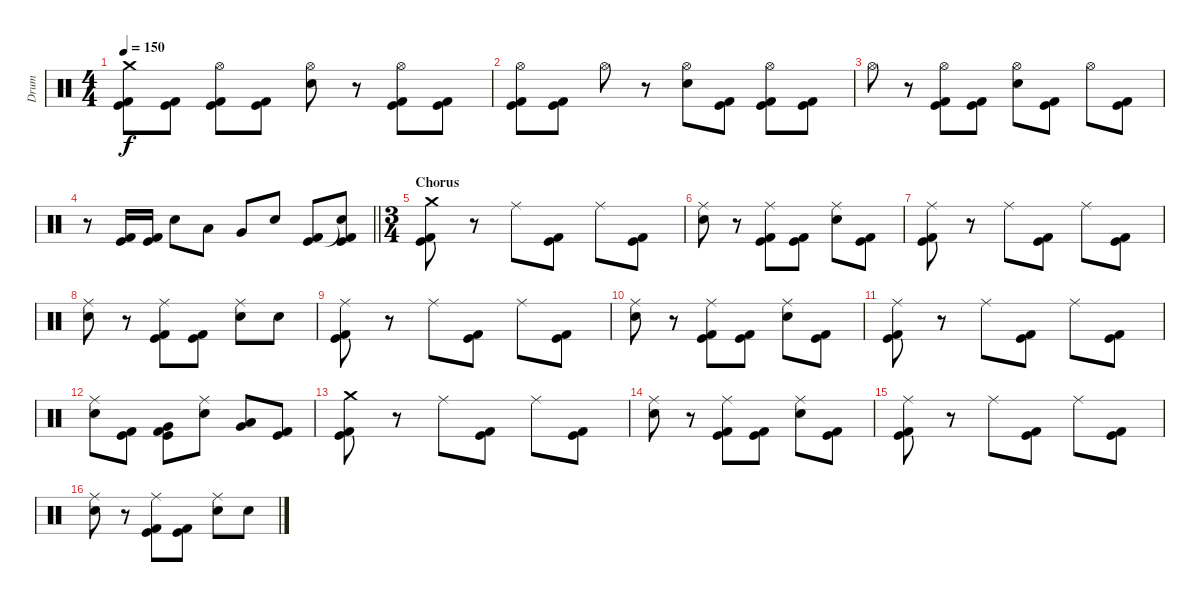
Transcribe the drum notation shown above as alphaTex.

\track ("Drum" "Drum") {instrument percussion}
\staff {score}
\articulation defaults
\ts (4 4)
\tempo 150
\clef neutral
\ks c
("Crash medium (hit)" "Kick (hit)" "Kick (hit) 2").8{dy f} ("Kick (hit)" "Kick (hit) 2").8 ("Hi-Hat (open)" "Kick (hit)" "Kick (hit) 2").8 ("Kick (hit)" "Kick (hit) 2").8 ("Hi-Hat (open)" "Electric Snare (hit)").8 r.8 ("Hi-Hat (open)" "Kick (hit)" "Kick (hit) 2").8 ("Kick (hit)" "Kick (hit) 2").8 |
("Hi-Hat (open)" "Kick (hit)" "Kick (hit) 2").8 ("Kick (hit)" "Kick (hit) 2").8 "Hi-Hat (open)".8 r.8 ("Hi-Hat (open)" "Electric Snare (hit)").8 ("Kick (hit)" "Kick (hit) 2").8 ("Hi-Hat (open)" "Kick (hit)" "Kick (hit) 2").8 ("Kick (hit)" "Kick (hit) 2").8 |
"Hi-Hat (open)".8 r.8 ("Hi-Hat (open)" "Kick (hit)" "Kick (hit) 2").8 ("Kick (hit)" "Kick (hit) 2").8 ("Hi-Hat (open)" "Electric Snare (hit)").8 ("Kick (hit)" "Kick (hit) 2").8 "Hi-Hat (open)".8 ("Kick (hit)" "Kick (hit) 2").8 |
\barLineRight lightlight
r.8 ("Kick (hit)" "Kick (hit) 2").16 ("Kick (hit)" "Kick (hit) 2").16 "Electric Snare (hit)".8 "Low Tom (hit)".8 "Very Low Tom (hit)".8 "Electric Snare (hit)".8 ("Kick (hit)" "Kick (hit) 2").8 ("Snare (hit)"{t} "Kick (hit)" "Kick (hit) 2").8 |
\ts (3 4)
\section ("" "Chorus")
("Crash medium (hit)" "Kick (hit)" "Kick (hit) 2").8 r.8 "Ride (middle)".8 ("Kick (hit)" "Kick (hit) 2").8 "Ride (middle)".8 ("Kick (hit)" "Kick (hit) 2").8 |
("Ride (middle)" "Electric Snare (hit)").8 r.8 ("Ride (middle)" "Kick (hit)" "Kick (hit) 2").8 ("Kick (hit)" "Kick (hit) 2").8 ("Ride (middle)" "Electric Snare (hit)").8 ("Kick (hit)" "Kick (hit) 2").8 |
("Ride (middle)" "Kick (hit)" "Kick (hit) 2").8 r.8 "Ride (middle)".8 ("Kick (hit)" "Kick (hit) 2").8 "Ride (middle)".8 ("Kick (hit)" "Kick (hit) 2").8 |
("Ride (middle)" "Electric Snare (hit)").8 r.8 ("Ride (middle)" "Kick (hit)" "Kick (hit) 2").8 ("Kick (hit)" "Kick (hit) 2").8 ("Ride (middle)" "Electric Snare (hit)").8 "Electric Snare (hit)".8 |
("Ride (middle)" "Kick (hit)" "Kick (hit) 2").8 r.8 "Ride (middle)".8 ("Kick (hit)" "Kick (hit) 2").8 "Ride (middle)".8 ("Kick (hit)" "Kick (hit) 2").8 |
("Ride (middle)" "Electric Snare (hit)").8 r.8 ("Ride (middle)" "Kick (hit)" "Kick (hit) 2").8 ("Kick (hit)" "Kick (hit) 2").8 ("Ride (middle)" "Electric Snare (hit)").8 ("Kick (hit)" "Kick (hit) 2").8 |
("Ride (middle)" "Kick (hit)" "Kick (hit) 2").8 r.8 "Ride (middle)".8 ("Kick (hit)" "Kick (hit) 2").8 "Ride (middle)".8 ("Kick (hit)" "Kick (hit) 2").8 |
("Ride (middle)" "Electric Snare (hit)").8 ("Kick (hit)" "Kick (hit) 2").8 ("Very Low Tom (hit)" "Kick (hit)" "Kick (hit) 2").8 ("Ride (middle)" "Electric Snare (hit)").8 ("Very Low Tom (hit)" "Low Tom (hit)").8 ("Kick (hit)" "Kick (hit) 2").8 |
("Crash medium (hit)" "Kick (hit)" "Kick (hit) 2").8 r.8 "Ride (middle)".8 ("Kick (hit)" "Kick (hit) 2").8 "Ride (middle)".8 ("Kick (hit)" "Kick (hit) 2").8 |
("Ride (middle)" "Electric Snare (hit)").8 r.8 ("Ride (middle)" "Kick (hit)" "Kick (hit) 2").8 ("Kick (hit)" "Kick (hit) 2").8 ("Ride (middle)" "Electric Snare (hit)").8 ("Kick (hit)" "Kick (hit) 2").8 |
("Ride (middle)" "Kick (hit)" "Kick (hit) 2").8 r.8 "Ride (middle)".8 ("Kick (hit)" "Kick (hit) 2").8 "Ride (middle)".8 ("Kick (hit)" "Kick (hit) 2").8 |
("Ride (middle)" "Electric Snare (hit)").8 r.8 ("Ride (middle)" "Kick (hit)" "Kick (hit) 2").8 ("Kick (hit)" "Kick (hit) 2").8 ("Ride (middle)" "Electric Snare (hit)").8 "Electric Snare (hit)".8
